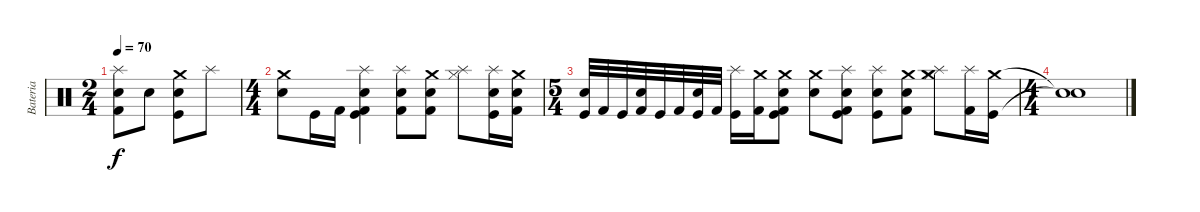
\track ("Bateria" "Bateria") {instrument percussion}
\staff {score}
\articulation defaults
\ts (2 4)
\tempo 70
\clef neutral
\ks c
("Splash (hit)" "Kick (hit) 2" "Snare (hit) 2").8{dy f} "Snare (hit) 2".8 ("Crash medium (hit)" "Kick (hit)" "Snare (hit) 2").8 "Splash (hit)".8 |
\ts (4 4)
("Snare (hit) 2" "Crash medium (hit)").8 "Kick (hit)".16 "Kick (hit) 2".16 ("Splash (hit)" "Kick (hit) 2" "Snare (hit) 2" "Kick (hit)").4 ("Splash (hit)" "Kick (hit) 2" "Snare (hit) 2").8 ("Crash medium (hit)" "Kick (hit) 2" "Snare (hit) 2").8 ("Splash (hit)" "Hi-Hat (closed)").8 ("Splash (hit)" "Snare (hit) 2" "Kick (hit)").16 ("Crash medium (hit)" "Snare (hit) 2" "Kick (hit) 2").16 |
\ts (5 4)
("Kick (hit)" "Snare (hit) 2").32 "Kick (hit) 2".32 "Kick (hit)".32 ("Kick (hit) 2" "Snare (hit) 2").32 "Kick (hit)".32 "Kick (hit) 2".32 ("Kick (hit)" "Snare (hit) 2").32 "Kick (hit) 2".32 ("Kick (hit)" "Splash (hit)").16 ("Kick (hit) 2" "Crash medium (hit)").16 ("Crash medium (hit)" "Snare (hit) 2" "Kick (hit) 2" "Kick (hit)").8 ("Crash medium (hit)" "Snare (hit) 2").8 ("Splash (hit)" "Kick (hit) 2" "Kick (hit)" "Snare (hit) 2").8 ("Kick (hit)" "Snare (hit) 2" "Splash (hit)").8 ("Kick (hit) 2" "Snare (hit) 2" "Crash medium (hit)").8 ("Crash medium (hit)" "Splash (hit)" "Hi-Hat (closed)").8 ("Splash (hit)" "Kick (hit) 2").16 ("Crash medium (hit)" "Kick (hit)").16 |
\ts (4 4)
("Snare (hit)"{t} "Snare (hit)"{t}).1
